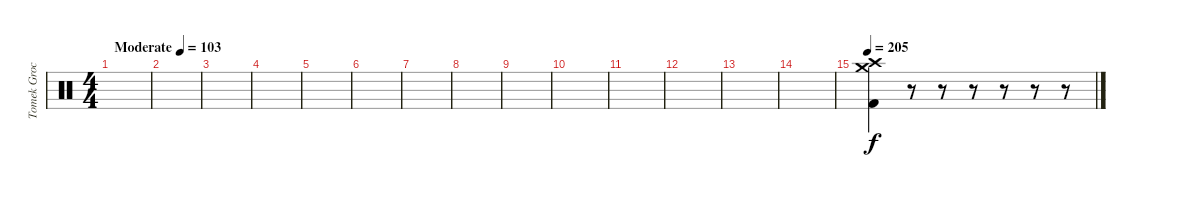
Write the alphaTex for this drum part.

\track ("Tomek Grochowski" "Tomek Groc") {instrument percussion}
\staff {score}
\articulation defaults
\ts (4 4)
\tempo (103 "Moderate")
\clef neutral
\ks c
|
|
|
|
|
|
|
|
|
|
|
|
|
|
\tempo 205
("Crash medium (hit)" "Crash high (hit)" "Kick (hit) 2").4 r.8 r.8 r.8 r.8 r.8 r.8
